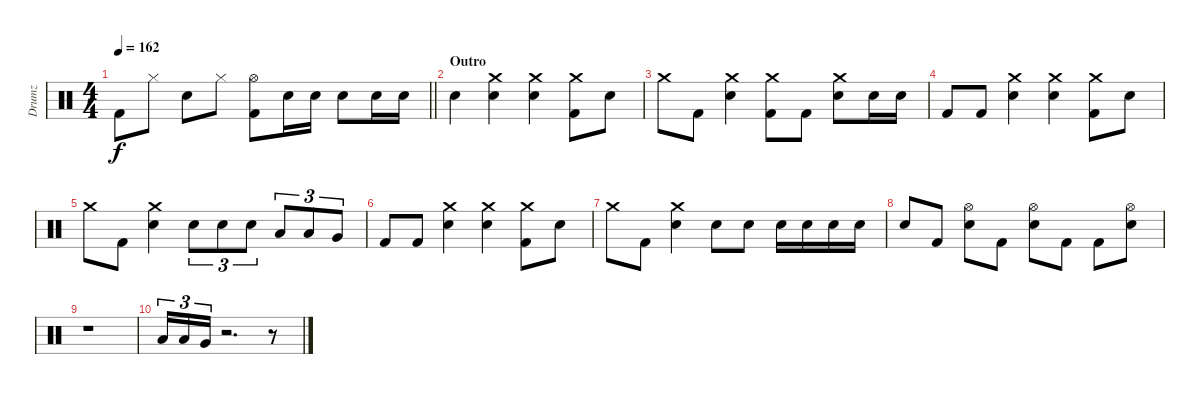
\track ("Drumz" "Drumz") {instrument percussion}
\staff {score}
\articulation defaults
\ts (4 4)
\tempo 162
\clef neutral
\barLineRight lightlight
\ks c "Kick (hit) 2".8{dy f} "Hi-Hat (closed)".8 "Electric Snare (hit)".8 "Hi-Hat (closed)".8
("Hi-Hat (open)" "Kick (hit) 2").8 "Electric Snare (hit)".16 "Electric Snare (hit)".16 "Electric Snare (hit)".8 "Electric Snare (hit)".16 "Electric Snare (hit)".16 |
\section ("" "Outro")
"Electric Snare (hit)".4 ("Crash medium (hit)" "Electric Snare (hit)").4 ("Crash medium (hit)" "Electric Snare (hit)").4 ("Crash medium (hit)" "Kick (hit) 2").8 "Electric Snare (hit)".8 |
"Crash medium (hit)".8 "Kick (hit) 2".8 ("Crash medium (hit)" "Electric Snare (hit)").4 ("Crash medium (hit)" "Kick (hit) 2").8 "Kick (hit) 2".8 ("Crash medium (hit)" "Electric Snare (hit)").8 "Electric Snare (hit)".16 "Electric Snare (hit)".16 |
"Kick (hit) 2".8 "Kick (hit) 2".8 ("Crash medium (hit)" "Electric Snare (hit)").4 ("Crash medium (hit)" "Electric Snare (hit)").4 ("Crash medium (hit)" "Kick (hit) 2").8 "Electric Snare (hit)".8 |
"Crash medium (hit)".8 "Kick (hit) 2".8 ("Crash medium (hit)" "Electric Snare (hit)").4 "Electric Snare (hit)".8{tu (3 2)} "Electric Snare (hit)".8{tu (3 2)} "Electric Snare (hit)".8{tu (3 2)} "Low Tom (hit)".8{tu (3 2)} "Low Tom (hit)".8{tu (3 2)} "Very Low Tom (hit)".8{tu (3 2)} |
"Kick (hit) 2".8 "Kick (hit) 2".8 ("Crash medium (hit)" "Electric Snare (hit)").4 ("Crash medium (hit)" "Electric Snare (hit)").4 ("Crash medium (hit)" "Kick (hit) 2").8 "Electric Snare (hit)".8 |
"Crash medium (hit)".8 "Kick (hit) 2".8 ("Crash medium (hit)" "Electric Snare (hit)").4 "Electric Snare (hit)".8 "Electric Snare (hit)".8 "Electric Snare (hit)".16 "Electric Snare (hit)".16 "Electric Snare (hit)".16 "Electric Snare (hit)".16 |
"Electric Snare (hit)".8 "Kick (hit) 2".8 ("Hi-Hat (open)" "Electric Snare (hit)").8 "Kick (hit) 2".8 ("Hi-Hat (open)" "Electric Snare (hit)").8 "Kick (hit) 2".8 "Kick (hit) 2".8 ("Hi-Hat (open)" "Electric Snare (hit)").8 |
r.1 |
"Low Tom (hit)".16{tu (3 2)} "Low Tom (hit)".16{tu (3 2)} "Very Low Tom (hit)".16{tu (3 2)} r.2{d} r.8
